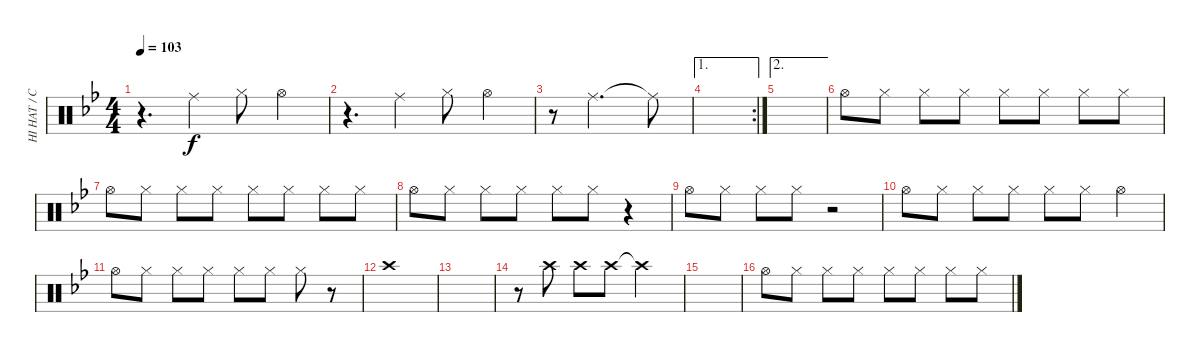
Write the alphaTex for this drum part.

\track ("HI HAT / CYMBALS" "HI HAT / C") {instrument percussion}
\staff {score}
\articulation defaults
\ts (4 4)
\tempo 103
\clef neutral
\ks bb
r.4{d dy f} "Ride (middle)".4 "Hi-Hat (closed)".8 "Hi-Hat (open)".4 |
r.4{d} "Ride (middle)".4 "Hi-Hat (closed)".8 "Hi-Hat (open)".4 |
r.8 "Ride (middle)".2{d} "Ride (middle)"{t}.8 |
\ae 1
\rc 2
|
\ae 2
|
"Hi-Hat (open)".8 "Hi-Hat (closed)".8 "Hi-Hat (closed)".8 "Hi-Hat (closed)".8 "Hi-Hat (closed)".8 "Hi-Hat (closed)".8 "Hi-Hat (closed)".8 "Hi-Hat (closed)".8 |
"Hi-Hat (open)".8 "Hi-Hat (closed)".8 "Hi-Hat (closed)".8 "Hi-Hat (closed)".8 "Hi-Hat (closed)".8 "Hi-Hat (closed)".8 "Hi-Hat (closed)".8 "Hi-Hat (closed)".8 |
"Hi-Hat (open)".8 "Hi-Hat (closed)".8 "Hi-Hat (closed)".8 "Hi-Hat (closed)".8 "Hi-Hat (closed)".8 "Hi-Hat (closed)".8 r.4 |
"Hi-Hat (open)".8 "Hi-Hat (closed)".8 "Hi-Hat (closed)".8 "Hi-Hat (closed)".8 r.2 |
"Hi-Hat (open)".8 "Hi-Hat (closed)".8 "Hi-Hat (closed)".8 "Hi-Hat (closed)".8 "Hi-Hat (closed)".8 "Hi-Hat (closed)".8 "Hi-Hat (open)".4 |
"Hi-Hat (open)".8 "Hi-Hat (closed)".8 "Hi-Hat (closed)".8 "Hi-Hat (closed)".8 "Hi-Hat (closed)".8 "Hi-Hat (closed)".8 "Hi-Hat (closed)".8 r.8 |
"Crash high (hit)".1 |
|
r.8 "Crash high (hit)".8 "Crash high (hit)".8 "Crash high (hit)".8 "Crash high (hit)"{t}.2 |
|
"Hi-Hat (open)".8 "Hi-Hat (closed)".8 "Hi-Hat (closed)".8 "Hi-Hat (closed)".8 "Hi-Hat (closed)".8 "Hi-Hat (closed)".8 "Hi-Hat (closed)".8 "Hi-Hat (closed)".8
